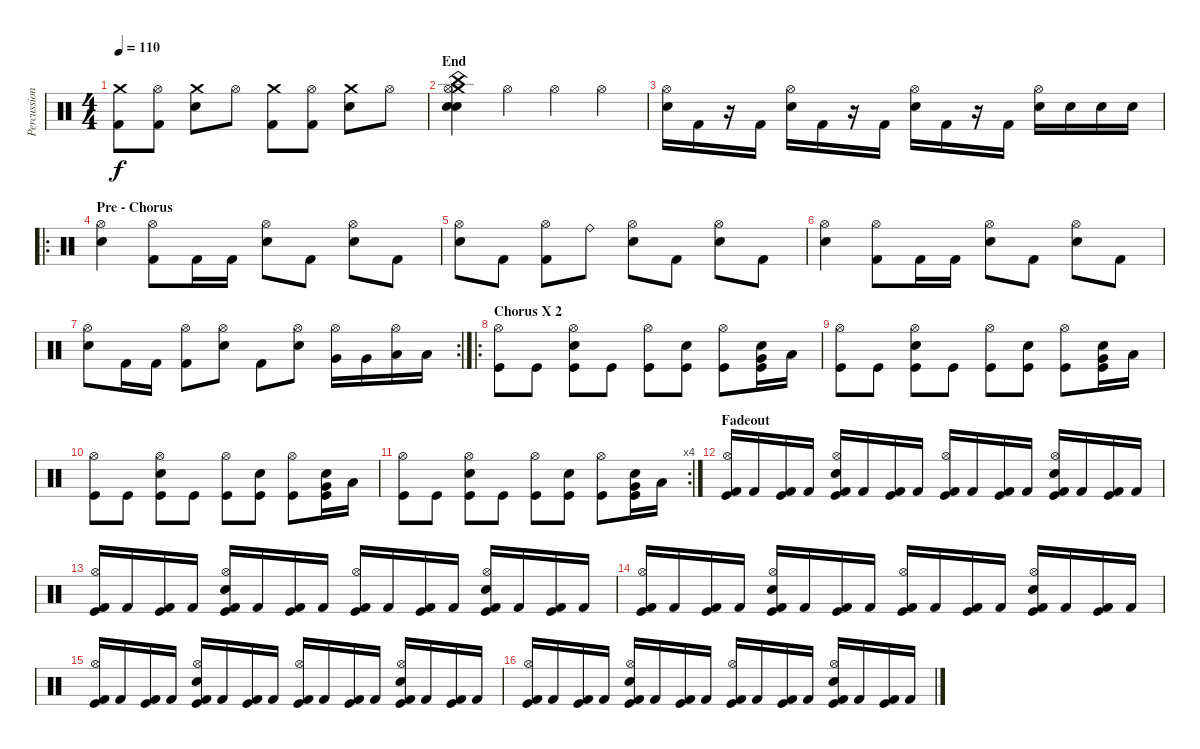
\track ("Percussion" "Percussion") {instrument percussion}
\staff {score}
\articulation defaults
\ts (4 4)
\tempo 110
\clef neutral
\ks c
("Crash medium (hit)" "Kick (hit) 2").8{dy f} ("Hi-Hat (open)" "Kick (hit) 2").8 ("Crash medium (hit)" "Electric Snare (hit)").8 "Hi-Hat (open)".8 ("Crash medium (hit)" "Kick (hit) 2").8 ("Hi-Hat (open)" "Kick (hit) 2").8 ("Crash medium (hit)" "Electric Snare (hit)").8 "Hi-Hat (open)".8 |
\section ("" "End")
("Crash medium (hit)" "China (hit)" "Electric Snare (hit)" "Hi-Hat (open)" "Snare (hit) 2").4 "Hi-Hat (open)".4 "Hi-Hat (open)".4 "Hi-Hat (open)".4 |
("Hi-Hat (open)" "Electric Snare (hit)").16 "Kick (hit) 2".16 r.16 "Kick (hit) 2".16 ("Hi-Hat (open)" "Electric Snare (hit)").16 "Kick (hit) 2".16 r.16 "Kick (hit) 2".16 ("Hi-Hat (open)" "Electric Snare (hit)").16 "Kick (hit) 2".16 r.16 "Kick (hit) 2".16 ("Hi-Hat (open)" "Electric Snare (hit)").16 "Electric Snare (hit)".16 "Electric Snare (hit)".16 "Electric Snare (hit)".16 |
\ro
\section ("" "Pre - Chorus")
("Electric Snare (hit)" "Hi-Hat (open)").4 ("Kick (hit) 2" "Hi-Hat (open)").8 "Kick (hit) 2".16 "Kick (hit) 2".16 ("Electric Snare (hit)" "Hi-Hat (open)").8 "Kick (hit) 2".8 ("Electric Snare (hit)" "Hi-Hat (open)").8 "Kick (hit) 2".8 |
("Electric Snare (hit)" "Hi-Hat (open)").8 "Kick (hit) 2".8 ("Kick (hit) 2" "Hi-Hat (open)").8 "Ride (bell)".8 ("Electric Snare (hit)" "Hi-Hat (open)").8 "Kick (hit) 2".8 ("Electric Snare (hit)" "Hi-Hat (open)").8 "Kick (hit) 2".8 |
("Electric Snare (hit)" "Hi-Hat (open)").4 ("Kick (hit) 2" "Hi-Hat (open)").8 "Kick (hit) 2".16 "Kick (hit) 2".16 ("Electric Snare (hit)" "Hi-Hat (open)").8 "Kick (hit) 2".8 ("Electric Snare (hit)" "Hi-Hat (open)").8 "Kick (hit) 2".8 |
\rc 2
("Electric Snare (hit)" "Hi-Hat (open)").8 "Kick (hit) 2".16 "Kick (hit) 2".16 ("Kick (hit) 2" "Hi-Hat (open)").8 ("Electric Snare (hit)" "Hi-Hat (open)").8 "Kick (hit) 2".8 ("Electric Snare (hit)" "Hi-Hat (open)").8 ("Very Low Tom (hit)" "Hi-Hat (open)").16 "Very Low Tom (hit)".16 ("Low Floor Tom (hit)" "Hi-Hat (open)").16 "Low Floor Tom (hit)".16 |
\ro
\section ("" "Chorus X 2")
("Kick (hit)" "Hi-Hat (open)").8 "Kick (hit)".8 ("Kick (hit)" "Hi-Hat (open)" "Electric Snare (hit)").8 "Kick (hit)".8 ("Kick (hit)" "Hi-Hat (open)").8 ("Kick (hit)" "Electric Snare (hit)").8 ("Kick (hit)" "Hi-Hat (open)").8 ("Kick (hit)" "Very Low Tom (hit)" "Electric Snare (hit)").16 "Low Floor Tom (hit)".16 |
("Kick (hit)" "Hi-Hat (open)").8 "Kick (hit)".8 ("Kick (hit)" "Hi-Hat (open)" "Electric Snare (hit)").8 "Kick (hit)".8 ("Kick (hit)" "Hi-Hat (open)").8 ("Kick (hit)" "Electric Snare (hit)").8 ("Kick (hit)" "Hi-Hat (open)").8 ("Kick (hit)" "Very Low Tom (hit)" "Electric Snare (hit)").16 "Low Floor Tom (hit)".16 |
("Kick (hit)" "Hi-Hat (open)").8 "Kick (hit)".8 ("Kick (hit)" "Hi-Hat (open)" "Electric Snare (hit)").8 "Kick (hit)".8 ("Kick (hit)" "Hi-Hat (open)").8 ("Kick (hit)" "Electric Snare (hit)").8 ("Kick (hit)" "Hi-Hat (open)").8 ("Kick (hit)" "Very Low Tom (hit)" "Electric Snare (hit)").16 "Low Floor Tom (hit)".16 |
\rc 4
("Kick (hit)" "Hi-Hat (open)").8 "Kick (hit)".8 ("Kick (hit)" "Hi-Hat (open)" "Electric Snare (hit)").8 "Kick (hit)".8 ("Kick (hit)" "Hi-Hat (open)").8 ("Kick (hit)" "Electric Snare (hit)").8 ("Kick (hit)" "Hi-Hat (open)").8 ("Kick (hit)" "Very Low Tom (hit)" "Electric Snare (hit)").16 "Low Floor Tom (hit)".16 |
\section ("" "Fadeout")
("Kick (hit)" "Hi-Hat (open)" "Kick (hit) 2").16 "Kick (hit) 2".16 ("Kick (hit)" "Kick (hit) 2").16 "Kick (hit) 2".16 ("Kick (hit)" "Hi-Hat (open)" "Electric Snare (hit)" "Kick (hit) 2").16 "Kick (hit) 2".16 ("Kick (hit)" "Kick (hit) 2").16 "Kick (hit) 2".16 ("Kick (hit)" "Hi-Hat (open)" "Kick (hit) 2").16 "Kick (hit) 2".16 ("Kick (hit)" "Kick (hit) 2").16 "Kick (hit) 2".16 ("Kick (hit)" "Hi-Hat (open)" "Electric Snare (hit)" "Kick (hit) 2").16 "Kick (hit) 2".16 ("Kick (hit)" "Kick (hit) 2").16 "Kick (hit) 2".16 |
("Kick (hit)" "Hi-Hat (open)" "Kick (hit) 2").16 "Kick (hit) 2".16 ("Kick (hit)" "Kick (hit) 2").16 "Kick (hit) 2".16 ("Kick (hit)" "Hi-Hat (open)" "Electric Snare (hit)" "Kick (hit) 2").16 "Kick (hit) 2".16 ("Kick (hit)" "Kick (hit) 2").16 "Kick (hit) 2".16 ("Kick (hit)" "Hi-Hat (open)" "Kick (hit) 2").16 "Kick (hit) 2".16 ("Kick (hit)" "Kick (hit) 2").16 "Kick (hit) 2".16 ("Kick (hit)" "Hi-Hat (open)" "Electric Snare (hit)" "Kick (hit) 2").16 "Kick (hit) 2".16 ("Kick (hit)" "Kick (hit) 2").16 "Kick (hit) 2".16 |
("Kick (hit)" "Hi-Hat (open)" "Kick (hit) 2").16 "Kick (hit) 2".16 ("Kick (hit)" "Kick (hit) 2").16 "Kick (hit) 2".16 ("Kick (hit)" "Hi-Hat (open)" "Electric Snare (hit)" "Kick (hit) 2").16 "Kick (hit) 2".16 ("Kick (hit)" "Kick (hit) 2").16 "Kick (hit) 2".16 ("Kick (hit)" "Hi-Hat (open)" "Kick (hit) 2").16 "Kick (hit) 2".16 ("Kick (hit)" "Kick (hit) 2").16 "Kick (hit) 2".16 ("Kick (hit)" "Hi-Hat (open)" "Electric Snare (hit)" "Kick (hit) 2").16 "Kick (hit) 2".16 ("Kick (hit)" "Kick (hit) 2").16 "Kick (hit) 2".16 |
("Kick (hit)" "Hi-Hat (open)" "Kick (hit) 2").16 "Kick (hit) 2".16 ("Kick (hit)" "Kick (hit) 2").16 "Kick (hit) 2".16 ("Kick (hit)" "Hi-Hat (open)" "Electric Snare (hit)" "Kick (hit) 2").16 "Kick (hit) 2".16 ("Kick (hit)" "Kick (hit) 2").16 "Kick (hit) 2".16 ("Kick (hit)" "Hi-Hat (open)" "Kick (hit) 2").16 "Kick (hit) 2".16 ("Kick (hit)" "Kick (hit) 2").16 "Kick (hit) 2".16 ("Kick (hit)" "Hi-Hat (open)" "Electric Snare (hit)" "Kick (hit) 2").16 "Kick (hit) 2".16 ("Kick (hit)" "Kick (hit) 2").16 "Kick (hit) 2".16 |
("Kick (hit)" "Hi-Hat (open)" "Kick (hit) 2").16 "Kick (hit) 2".16 ("Kick (hit)" "Kick (hit) 2").16 "Kick (hit) 2".16 ("Kick (hit)" "Hi-Hat (open)" "Electric Snare (hit)" "Kick (hit) 2").16 "Kick (hit) 2".16 ("Kick (hit)" "Kick (hit) 2").16 "Kick (hit) 2".16 ("Kick (hit)" "Hi-Hat (open)" "Kick (hit) 2").16 "Kick (hit) 2".16 ("Kick (hit)" "Kick (hit) 2").16 "Kick (hit) 2".16 ("Kick (hit)" "Hi-Hat (open)" "Electric Snare (hit)" "Kick (hit) 2").16 "Kick (hit) 2".16 ("Kick (hit)" "Kick (hit) 2").16 "Kick (hit) 2".16
